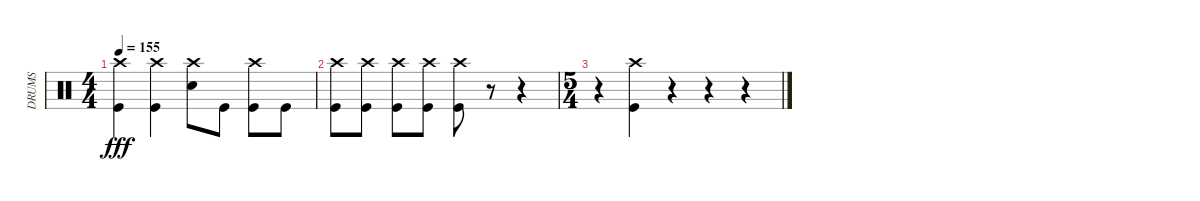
\track ("DRUMS" "DRUMS") {instrument percussion}
\staff {score}
\articulation defaults
\ts (4 4)
\tempo 155
\clef neutral
\ks c
("Kick (hit)" "Crash high (hit)").4{dy fff} ("Crash high (hit)" "Kick (hit)").4 ("Snare (hit) 2" "Crash high (hit)").8 "Kick (hit)".8 ("Kick (hit)" "Crash high (hit)").8 "Kick (hit)".8 |
("Kick (hit)" "Crash high (hit)").8 ("Kick (hit)" "Crash high (hit)").8 ("Kick (hit)" "Crash high (hit)").8 ("Kick (hit)" "Crash high (hit)").8 ("Kick (hit)" "Crash high (hit)").8 r.8 r.4 |
\ts (5 4)
r.4 ("Kick (hit)" "Crash high (hit)").4 r.4 r.4 r.4
